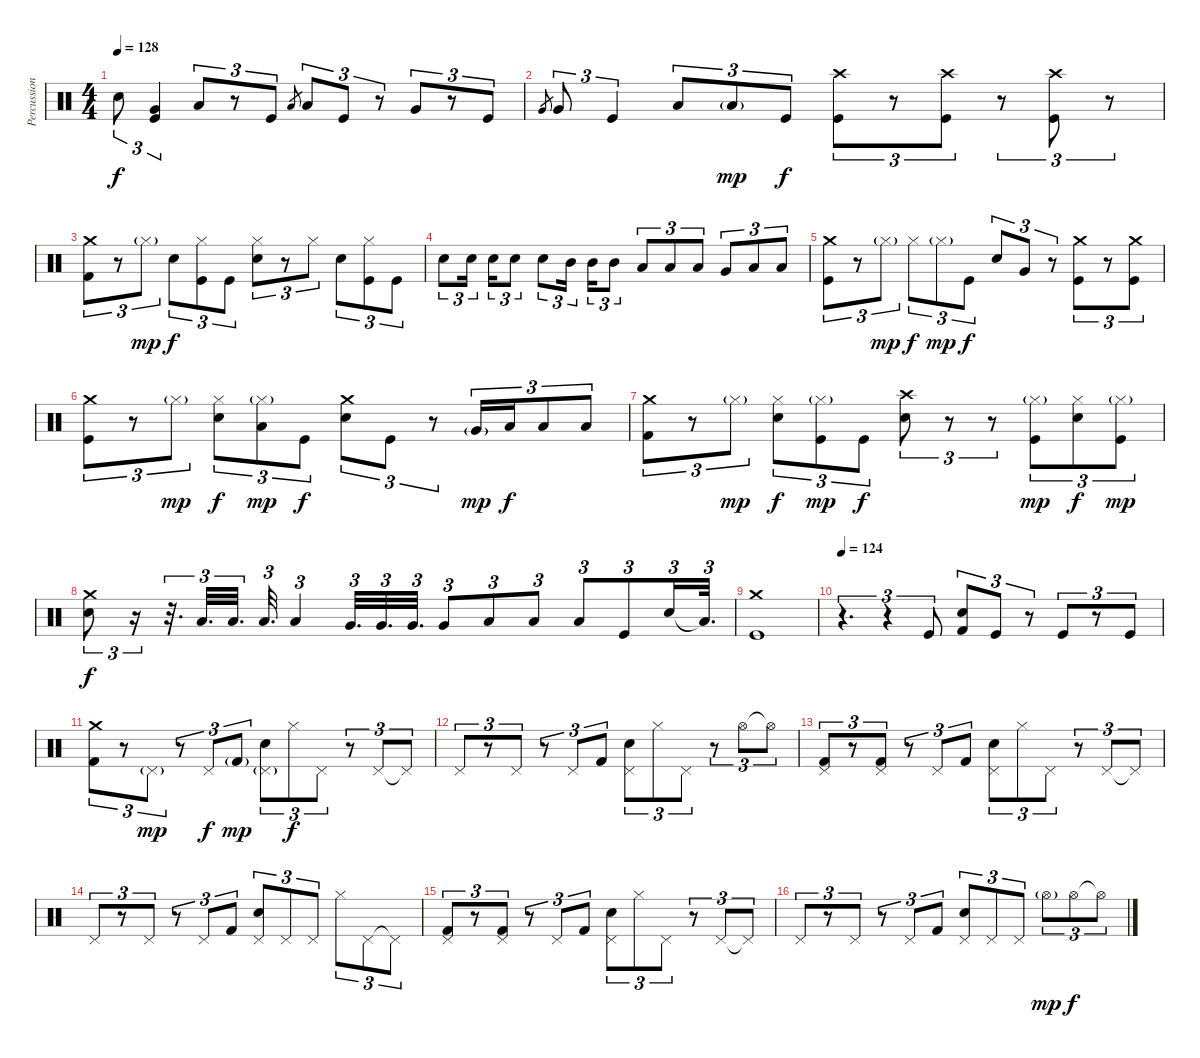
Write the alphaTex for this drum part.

\track ("Percussions" "Percussion") {instrument percussion}
\staff {score}
\articulation defaults
\ts (4 4)
\tempo 128
\clef neutral
\ks c "Electric Snare (hit)".8{tu (3 2) dy f}
("Very Low Tom (hit)" "Kick (hit)").4{tu (3 2)} "Low Tom (hit)".8{tu (3 2)} r.8{tu (3 2)} "Kick (hit)".8{tu (3 2)} "Low Tom (hit)".8{gr} "Low Tom (hit)".8{tu (3 2)} "Kick (hit)".8{tu (3 2)} r.8{tu (3 2)} "Very Low Tom (hit)".8{tu (3 2)} r.8{tu (3 2)} "Kick (hit)".8{tu (3 2)} |
"Very Low Tom (hit)".8{gr} "Very Low Tom (hit)".8{tu (3 2)} "Kick (hit)".4{tu (3 2)} "Low Floor Tom (hit)".8{tu (3 2)} "Low Floor Tom (hit)"{g}.8{tu (3 2) dy mp} "Kick (hit)".8{tu (3 2) dy f} ("Crash high (hit)" "Kick (hit)").8{tu (3 2)} r.8{tu (3 2)} ("Crash high (hit)" "Kick (hit)").8{tu (3 2)} r.8{tu (3 2)} ("Crash high (hit)" "Kick (hit)").8{tu (3 2)} r.8{tu (3 2)} |
("Crash medium (hit)" "Kick (hit) 2").8{tu (3 2)} r.8{tu (3 2)} "Hi-Hat (closed)"{g}.8{tu (3 2) dy mp} "Electric Snare (hit)".8{tu (3 2) dy f} ("Hi-Hat (closed)" "Kick (hit)").8{tu (3 2)} "Kick (hit)".8{tu (3 2)} ("Hi-Hat (closed)" "Electric Snare (hit)").8{tu (3 2)} r.8{tu (3 2)} "Hi-Hat (closed)".8{tu (3 2)} "Electric Snare (hit)".8{tu (3 2)} ("Hi-Hat (closed)" "Kick (hit)").8{tu (3 2)} "Kick (hit)".8{tu (3 2)} |
"Electric Snare (hit)".8{tu (3 2)} "Electric Snare (hit)".16{tu (3 2) beam splitsecondary} "Electric Snare (hit)".16{tu (3 2)} "Electric Snare (hit)".8{tu (3 2)} "Electric Snare (hit)".8{tu (3 2)} "Mid Tom (hit)".16{tu (3 2) beam splitsecondary} "Mid Tom (hit)".16{tu (3 2)} "Mid Tom (hit)".8{tu (3 2)} "Low Tom (hit)".8{tu (3 2)} "Low Tom (hit)".8{tu (3 2)} "Low Tom (hit)".8{tu (3 2)} "Very Low Tom (hit)".8{tu (3 2)} "Low Floor Tom (hit)".8{tu (3 2)} "Low Floor Tom (hit)".8{tu (3 2)} |
("Crash medium (hit)" "Kick (hit)").8{tu (3 2)} r.8{tu (3 2)} "Hi-Hat (closed)"{g}.8{tu (3 2) dy mp} "Hi-Hat (closed)".8{tu (3 2) dy f} "Hi-Hat (closed)"{g}.8{tu (3 2) dy mp} "Kick (hit)".8{tu (3 2) dy f} "Electric Snare (hit)".8{tu (3 2)} "Very Low Tom (hit)".8{tu (3 2)} r.8{tu (3 2)} ("Crash medium (hit)" "Kick (hit)").8{tu (3 2)} r.8{tu (3 2)} ("Crash medium (hit)" "Kick (hit)").8{tu (3 2)} |
("Crash medium (hit)" "Kick (hit)").8{tu (3 2)} r.8{tu (3 2)} "Hi-Hat (closed)"{g}.8{tu (3 2) dy mp} ("Hi-Hat (closed)" "Electric Snare (hit)").8{tu (3 2) dy f} ("Hi-Hat (closed)"{g} "Low Floor Tom (hit)").8{tu (3 2) dy mp} "Kick (hit)".8{tu (3 2) dy f} ("Crash medium (hit)" "Electric Snare (hit)").8{tu (3 2)} "Kick (hit)".8{tu (3 2)} r.8{tu (3 2)} "Very Low Tom (hit)"{g}.16{tu (3 2) dy mp} "Low Floor Tom (hit)".16{tu (3 2) dy f} "Low Floor Tom (hit)".8{tu (3 2)} "Low Floor Tom (hit)".8{tu (3 2)} |
("Crash medium (hit)" "Kick (hit) 2").8{tu (3 2)} r.8{tu (3 2)} "Hi-Hat (closed)"{g}.8{tu (3 2) dy mp} ("Hi-Hat (closed)" "Electric Snare (hit)").8{tu (3 2) dy f} ("Hi-Hat (closed)"{g} "Kick (hit)").8{tu (3 2) dy mp} "Kick (hit)".8{tu (3 2) dy f} ("Crash high (hit)" "Electric Snare (hit)").8{tu (3 2)} r.8{tu (3 2)} r.8{tu (3 2)} ("Hi-Hat (closed)"{g} "Kick (hit)").8{tu (3 2) dy mp} ("Hi-Hat (closed)" "Electric Snare (hit)").8{tu (3 2) dy f} ("Hi-Hat (closed)"{g} "Kick (hit)").8{tu (3 2) dy mp} |
("Crash medium (hit)" "Electric Snare (hit)").8{tu (3 2) dy f} r.16{tu (3 2)} r.32{d tu (3 2)} "Low Tom (hit)".32{d tu (3 2)} "Low Tom (hit)".32{d tu (3 2)} "Low Tom (hit)".32{d tu (3 2)} "Low Tom (hit)".4{tu (3 2)} "Very Low Tom (hit)".32{d tu (3 2)} "Very Low Tom (hit)".32{d tu (3 2)} "Very Low Tom (hit)".32{d tu (3 2)} "Very Low Tom (hit)".8{tu (3 2)} "Low Floor Tom (hit)".8{tu (3 2)} "Low Floor Tom (hit)".8{tu (3 2)} "Low Floor Tom (hit)".8{tu (3 2)} "Kick (hit)".8{tu (3 2)} "Electric Snare (hit)".16{tu (3 2)} "Low Tom (hit)"{t}.32{d tu (3 2)} |
("Crash medium (hit)" "Kick (hit)").1 |
\tempo 124
r.4{d tu (3 2)} r.4{tu (3 2)} "Kick (hit)".8{tu (3 2)} ("Electric Snare (hit)" "Kick (hit) 2").8{tu (3 2)} "Kick (hit)".8{tu (3 2)} r.8{tu (3 2)} "Kick (hit)".8{tu (3 2)} r.8{tu (3 2)} "Kick (hit)".8{tu (3 2)} |
("Crash medium (hit)" "Kick (hit) 2").8{tu (3 2)} r.8{tu (3 2)} "Pedal Hi-Hat (hit)"{g}.8{tu (3 2) dy mp} r.8{tu (3 2)} "Pedal Hi-Hat (hit)".8{tu (3 2) dy f} "Kick (hit) 2"{g}.8{tu (3 2) dy mp} ("Pedal Hi-Hat (hit)"{g} "Electric Snare (hit)").8{tu (3 2)} "Hi-Hat (closed)".8{tu (3 2) dy f} "Pedal Hi-Hat (hit)".8{tu (3 2)} r.8{tu (3 2)} "Pedal Hi-Hat (hit)".8{tu (3 2)} "Pedal Hi-Hat (hit)"{t}.8{tu (3 2)} |
"Pedal Hi-Hat (hit)".8{tu (3 2)} r.8{tu (3 2)} "Pedal Hi-Hat (hit)".8{tu (3 2)} r.8{tu (3 2)} "Pedal Hi-Hat (hit)".8{tu (3 2)} "Kick (hit) 2".8{tu (3 2)} ("Pedal Hi-Hat (hit)" "Electric Snare (hit)").8{tu (3 2)} "Hi-Hat (closed)".8{tu (3 2)} "Pedal Hi-Hat (hit)".8{tu (3 2)} r.8{tu (3 2)} "Hi-Hat (open)".8{tu (3 2)} "Hi-Hat (open)"{t}.8{tu (3 2)} |
("Pedal Hi-Hat (hit)" "Kick (hit) 2").8{tu (3 2)} r.8{tu (3 2)} ("Pedal Hi-Hat (hit)" "Kick (hit) 2").8{tu (3 2)} r.8{tu (3 2)} "Pedal Hi-Hat (hit)".8{tu (3 2)} "Kick (hit) 2".8{tu (3 2)} ("Pedal Hi-Hat (hit)" "Electric Snare (hit)").8{tu (3 2)} "Hi-Hat (closed)".8{tu (3 2)} "Pedal Hi-Hat (hit)".8{tu (3 2)} r.8{tu (3 2)} "Pedal Hi-Hat (hit)".8{tu (3 2)} "Pedal Hi-Hat (hit)"{t}.8{tu (3 2)} |
"Pedal Hi-Hat (hit)".8{tu (3 2)} r.8{tu (3 2)} "Pedal Hi-Hat (hit)".8{tu (3 2)} r.8{tu (3 2)} "Pedal Hi-Hat (hit)".8{tu (3 2)} "Kick (hit) 2".8{tu (3 2)} ("Pedal Hi-Hat (hit)" "Electric Snare (hit)").8{tu (3 2)} "Pedal Hi-Hat (hit)".8{tu (3 2)} "Pedal Hi-Hat (hit)".8{tu (3 2)} "Hi-Hat (closed)".8{tu (3 2)} "Pedal Hi-Hat (hit)".8{tu (3 2)} "Pedal Hi-Hat (hit)"{t}.8{tu (3 2)} |
("Pedal Hi-Hat (hit)" "Kick (hit) 2").8{tu (3 2)} r.8{tu (3 2)} ("Pedal Hi-Hat (hit)" "Kick (hit) 2").8{tu (3 2)} r.8{tu (3 2)} "Pedal Hi-Hat (hit)".8{tu (3 2)} "Kick (hit) 2".8{tu (3 2)} ("Pedal Hi-Hat (hit)" "Electric Snare (hit)").8{tu (3 2)} "Hi-Hat (closed)".8{tu (3 2)} "Pedal Hi-Hat (hit)".8{tu (3 2)} r.8{tu (3 2)} "Pedal Hi-Hat (hit)".8{tu (3 2)} "Pedal Hi-Hat (hit)"{t}.8{tu (3 2)} |
"Pedal Hi-Hat (hit)".8{tu (3 2)} r.8{tu (3 2)} "Pedal Hi-Hat (hit)".8{tu (3 2)} r.8{tu (3 2)} "Pedal Hi-Hat (hit)".8{tu (3 2)} "Kick (hit) 2".8{tu (3 2)} ("Pedal Hi-Hat (hit)" "Electric Snare (hit)").8{tu (3 2)} "Pedal Hi-Hat (hit)".8{tu (3 2)} "Pedal Hi-Hat (hit)".8{tu (3 2)} "Hi-Hat (open)"{g}.8{tu (3 2) dy mp} "Hi-Hat (open)".8{tu (3 2) dy f} "Hi-Hat (open)"{t}.8{tu (3 2)}
